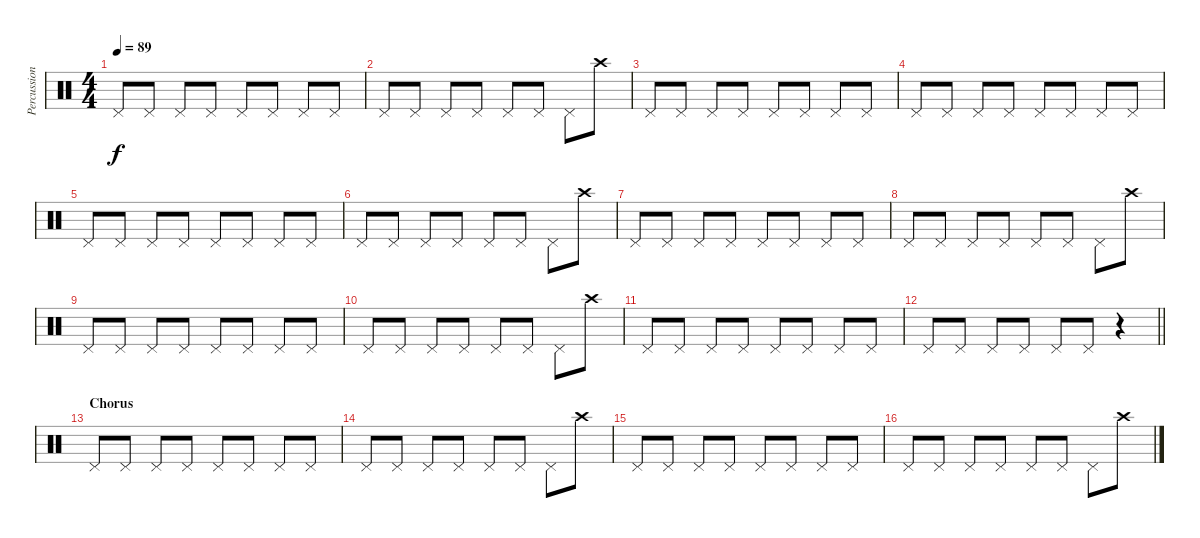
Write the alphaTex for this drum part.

\track ("Percussion" "Percussion") {instrument percussion}
\staff {score}
\articulation defaults
\ts (4 4)
\tempo 89
\clef neutral
\ks c "Pedal Hi-Hat (hit)".8{dy f} "Pedal Hi-Hat (hit)".8 "Pedal Hi-Hat (hit)".8 "Pedal Hi-Hat (hit)".8 "Pedal Hi-Hat (hit)".8 "Pedal Hi-Hat (hit)".8 "Pedal Hi-Hat (hit)".8 "Pedal Hi-Hat (hit)".8
|
"Pedal Hi-Hat (hit)".8 "Pedal Hi-Hat (hit)".8 "Pedal Hi-Hat (hit)".8 "Pedal Hi-Hat (hit)".8 "Pedal Hi-Hat (hit)".8 "Pedal Hi-Hat (hit)".8 "Pedal Hi-Hat (hit)".8 "Crash high (hit)".8 |
"Pedal Hi-Hat (hit)".8 "Pedal Hi-Hat (hit)".8 "Pedal Hi-Hat (hit)".8 "Pedal Hi-Hat (hit)".8 "Pedal Hi-Hat (hit)".8 "Pedal Hi-Hat (hit)".8 "Pedal Hi-Hat (hit)".8 "Pedal Hi-Hat (hit)".8 |
"Pedal Hi-Hat (hit)".8 "Pedal Hi-Hat (hit)".8 "Pedal Hi-Hat (hit)".8 "Pedal Hi-Hat (hit)".8 "Pedal Hi-Hat (hit)".8 "Pedal Hi-Hat (hit)".8 "Pedal Hi-Hat (hit)".8 "Pedal Hi-Hat (hit)".8 |
"Pedal Hi-Hat (hit)".8 "Pedal Hi-Hat (hit)".8 "Pedal Hi-Hat (hit)".8 "Pedal Hi-Hat (hit)".8 "Pedal Hi-Hat (hit)".8 "Pedal Hi-Hat (hit)".8 "Pedal Hi-Hat (hit)".8 "Pedal Hi-Hat (hit)".8 |
"Pedal Hi-Hat (hit)".8 "Pedal Hi-Hat (hit)".8 "Pedal Hi-Hat (hit)".8 "Pedal Hi-Hat (hit)".8 "Pedal Hi-Hat (hit)".8 "Pedal Hi-Hat (hit)".8 "Pedal Hi-Hat (hit)".8 "Crash high (hit)".8 |
"Pedal Hi-Hat (hit)".8 "Pedal Hi-Hat (hit)".8 "Pedal Hi-Hat (hit)".8 "Pedal Hi-Hat (hit)".8 "Pedal Hi-Hat (hit)".8 "Pedal Hi-Hat (hit)".8 "Pedal Hi-Hat (hit)".8 "Pedal Hi-Hat (hit)".8 |
"Pedal Hi-Hat (hit)".8 "Pedal Hi-Hat (hit)".8 "Pedal Hi-Hat (hit)".8 "Pedal Hi-Hat (hit)".8 "Pedal Hi-Hat (hit)".8 "Pedal Hi-Hat (hit)".8 "Pedal Hi-Hat (hit)".8 "Crash high (hit)".8 |
"Pedal Hi-Hat (hit)".8 "Pedal Hi-Hat (hit)".8 "Pedal Hi-Hat (hit)".8 "Pedal Hi-Hat (hit)".8 "Pedal Hi-Hat (hit)".8 "Pedal Hi-Hat (hit)".8 "Pedal Hi-Hat (hit)".8 "Pedal Hi-Hat (hit)".8 |
"Pedal Hi-Hat (hit)".8 "Pedal Hi-Hat (hit)".8 "Pedal Hi-Hat (hit)".8 "Pedal Hi-Hat (hit)".8 "Pedal Hi-Hat (hit)".8 "Pedal Hi-Hat (hit)".8 "Pedal Hi-Hat (hit)".8 "Crash high (hit)".8 |
"Pedal Hi-Hat (hit)".8 "Pedal Hi-Hat (hit)".8 "Pedal Hi-Hat (hit)".8 "Pedal Hi-Hat (hit)".8 "Pedal Hi-Hat (hit)".8 "Pedal Hi-Hat (hit)".8 "Pedal Hi-Hat (hit)".8 "Pedal Hi-Hat (hit)".8 |
\barLineRight lightlight "Pedal Hi-Hat (hit)".8 "Pedal Hi-Hat (hit)".8 "Pedal Hi-Hat (hit)".8 "Pedal Hi-Hat (hit)".8 "Pedal Hi-Hat (hit)".8 "Pedal Hi-Hat (hit)".8
r.4 |
\section ("" "Chorus")
"Pedal Hi-Hat (hit)".8 "Pedal Hi-Hat (hit)".8 "Pedal Hi-Hat (hit)".8 "Pedal Hi-Hat (hit)".8 "Pedal Hi-Hat (hit)".8 "Pedal Hi-Hat (hit)".8 "Pedal Hi-Hat (hit)".8 "Pedal Hi-Hat (hit)".8 |
"Pedal Hi-Hat (hit)".8 "Pedal Hi-Hat (hit)".8 "Pedal Hi-Hat (hit)".8 "Pedal Hi-Hat (hit)".8 "Pedal Hi-Hat (hit)".8 "Pedal Hi-Hat (hit)".8 "Pedal Hi-Hat (hit)".8 "Crash high (hit)".8 |
"Pedal Hi-Hat (hit)".8 "Pedal Hi-Hat (hit)".8 "Pedal Hi-Hat (hit)".8 "Pedal Hi-Hat (hit)".8 "Pedal Hi-Hat (hit)".8 "Pedal Hi-Hat (hit)".8 "Pedal Hi-Hat (hit)".8 "Pedal Hi-Hat (hit)".8 |
"Pedal Hi-Hat (hit)".8 "Pedal Hi-Hat (hit)".8 "Pedal Hi-Hat (hit)".8 "Pedal Hi-Hat (hit)".8 "Pedal Hi-Hat (hit)".8 "Pedal Hi-Hat (hit)".8 "Pedal Hi-Hat (hit)".8 "Crash high (hit)".8
